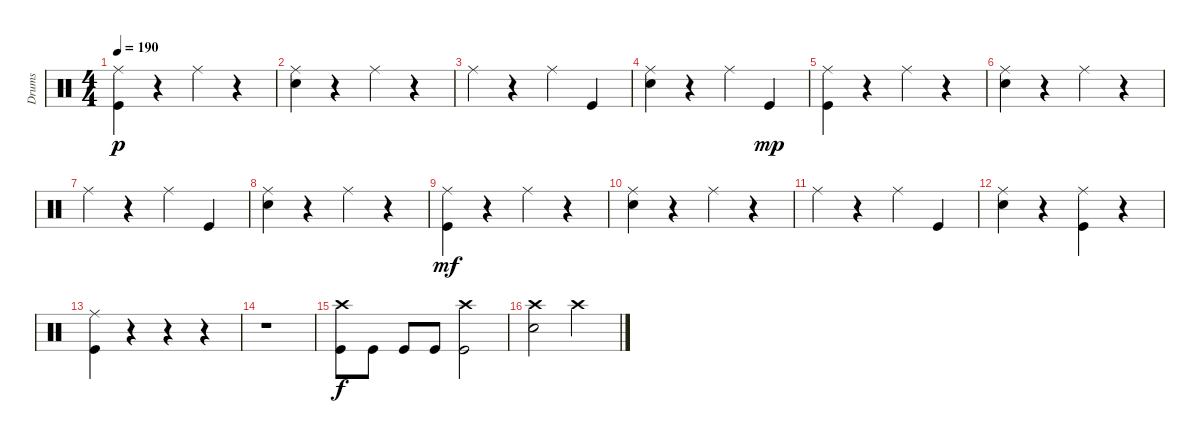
\track ("Drums" "Drums") {instrument percussion}
\staff {score}
\articulation defaults
\ts (4 4)
\tempo 190
\clef neutral
\ks c
("Ride (middle)" "Kick (hit)").4{dy p} r.4 "Ride (middle)".4 r.4 |
("Ride (middle)" "Snare (hit) 2").4 r.4 "Ride (middle)".4 r.4 |
"Ride (middle)".4 r.4 "Ride (middle)".4 "Kick (hit)".4 |
("Ride (middle)" "Snare (hit) 2").4 r.4 "Ride (middle)".4 "Kick (hit)".4{dy mp} |
("Ride (middle)" "Kick (hit)").4 r.4 "Ride (middle)".4 r.4 |
("Ride (middle)" "Snare (hit) 2").4 r.4 "Ride (middle)".4 r.4 |
"Ride (middle)".4 r.4 "Ride (middle)".4 "Kick (hit)".4 |
("Ride (middle)" "Snare (hit) 2").4 r.4 "Ride (middle)".4 r.4 |
("Ride (middle)" "Kick (hit)").4{dy mf} r.4 "Ride (middle)".4 r.4 |
("Ride (middle)" "Snare (hit) 2").4 r.4 "Ride (middle)".4 r.4 |
"Ride (middle)".4 r.4 "Ride (middle)".4 "Kick (hit)".4 |
("Ride (middle)" "Snare (hit) 2").4 r.4 ("Ride (middle)" "Kick (hit)").4 r.4 |
("Ride (middle)" "Kick (hit)").4 r.4 r.4 r.4 |
r.1 |
("Crash high (hit)" "Kick (hit)").8{dy f} "Kick (hit)".8 "Kick (hit)".8 "Kick (hit)".8 ("Crash high (hit)" "Kick (hit)").2 |
("Crash high (hit)" "Snare (hit) 2").2 "Crash high (hit)".2
